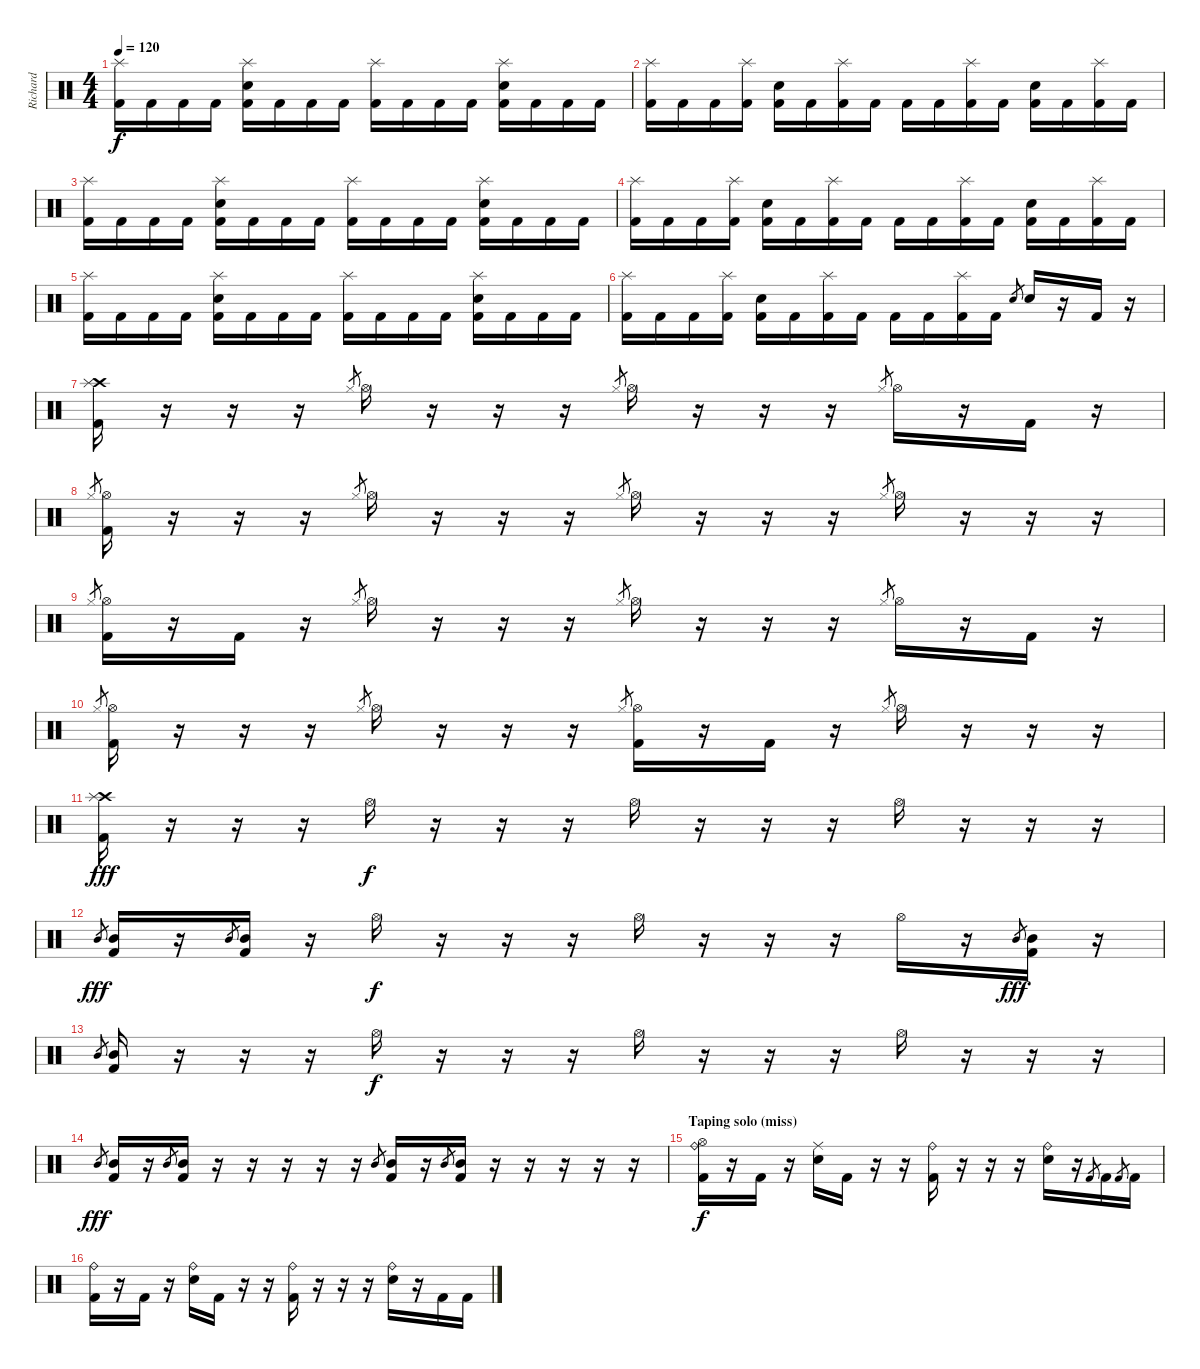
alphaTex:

\track ("Richard " "Richard ") {instrument percussion}
\staff {score}
\articulation defaults
\ts (4 4)
\tempo 120
\clef neutral
\ks c
("Splash (hit)" "Kick (hit) 2").16{dy f} "Kick (hit) 2".16 "Kick (hit) 2".16 "Kick (hit) 2".16 ("Splash (hit)" "Snare (hit) 2" "Kick (hit) 2").16 "Kick (hit) 2".16 "Kick (hit) 2".16 "Kick (hit) 2".16 ("Splash (hit)" "Kick (hit) 2").16 "Kick (hit) 2".16 "Kick (hit) 2".16 "Kick (hit) 2".16 ("Splash (hit)" "Snare (hit) 2" "Kick (hit) 2").16 "Kick (hit) 2".16 "Kick (hit) 2".16 "Kick (hit) 2".16 |
("Splash (hit)" "Kick (hit) 2").16 "Kick (hit) 2".16 "Kick (hit) 2".16 ("Splash (hit)" "Kick (hit) 2").16 ("Snare (hit) 2" "Kick (hit) 2").16 "Kick (hit) 2".16 ("Splash (hit)" "Kick (hit) 2").16 "Kick (hit) 2".16 "Kick (hit) 2".16 "Kick (hit) 2".16 ("Splash (hit)" "Kick (hit) 2").16 "Kick (hit) 2".16 ("Snare (hit) 2" "Kick (hit) 2").16 "Kick (hit) 2".16 ("Splash (hit)" "Kick (hit) 2").16 "Kick (hit) 2".16 |
("Splash (hit)" "Kick (hit) 2").16 "Kick (hit) 2".16 "Kick (hit) 2".16 "Kick (hit) 2".16 ("Splash (hit)" "Snare (hit) 2" "Kick (hit) 2").16 "Kick (hit) 2".16 "Kick (hit) 2".16 "Kick (hit) 2".16 ("Splash (hit)" "Kick (hit) 2").16 "Kick (hit) 2".16 "Kick (hit) 2".16 "Kick (hit) 2".16 ("Splash (hit)" "Snare (hit) 2" "Kick (hit) 2").16 "Kick (hit) 2".16 "Kick (hit) 2".16 "Kick (hit) 2".16 |
("Splash (hit)" "Kick (hit) 2").16 "Kick (hit) 2".16 "Kick (hit) 2".16 ("Splash (hit)" "Kick (hit) 2").16 ("Snare (hit) 2" "Kick (hit) 2").16 "Kick (hit) 2".16 ("Splash (hit)" "Kick (hit) 2").16 "Kick (hit) 2".16 "Kick (hit) 2".16 "Kick (hit) 2".16 ("Splash (hit)" "Kick (hit) 2").16 "Kick (hit) 2".16 ("Snare (hit) 2" "Kick (hit) 2").16 "Kick (hit) 2".16 ("Splash (hit)" "Kick (hit) 2").16 "Kick (hit) 2".16 |
("Splash (hit)" "Kick (hit) 2").16 "Kick (hit) 2".16 "Kick (hit) 2".16 "Kick (hit) 2".16 ("Splash (hit)" "Snare (hit) 2" "Kick (hit) 2").16 "Kick (hit) 2".16 "Kick (hit) 2".16 "Kick (hit) 2".16 ("Splash (hit)" "Kick (hit) 2").16 "Kick (hit) 2".16 "Kick (hit) 2".16 "Kick (hit) 2".16 ("Splash (hit)" "Snare (hit) 2" "Kick (hit) 2").16 "Kick (hit) 2".16 "Kick (hit) 2".16 "Kick (hit) 2".16 |
("Splash (hit)" "Kick (hit) 2").16 "Kick (hit) 2".16 "Kick (hit) 2".16 ("Splash (hit)" "Kick (hit) 2").16 ("Snare (hit) 2" "Kick (hit) 2").16 "Kick (hit) 2".16 ("Splash (hit)" "Kick (hit) 2").16 "Kick (hit) 2".16 "Kick (hit) 2".16 "Kick (hit) 2".16 ("Splash (hit)" "Kick (hit) 2").16 "Kick (hit) 2".16 "Snare (hit) 2".8{gr} "Snare (hit) 2".16 r.16 "Kick (hit) 2".16 r.16 |
("Crash high (hit)" "Splash (hit)" "Kick (hit) 2").16 r.16 r.16 r.16 "Hi-Hat (closed)".8{gr} "Hi-Hat (open)".16 r.16 r.16 r.16 "Hi-Hat (closed)".8{gr} "Hi-Hat (open)".16 r.16 r.16 r.16 "Hi-Hat (closed)".8{gr} "Hi-Hat (open)".16 r.16 "Kick (hit) 2".16 r.16 |
"Hi-Hat (closed)".8{gr} ("Hi-Hat (open)" "Kick (hit) 2").16 r.16 r.16 r.16 "Hi-Hat (closed)".8{gr} "Hi-Hat (open)".16 r.16 r.16 r.16 "Hi-Hat (closed)".8{gr} "Hi-Hat (open)".16 r.16 r.16 r.16 "Hi-Hat (closed)".8{gr} "Hi-Hat (open)".16 r.16 r.16 r.16 |
"Hi-Hat (closed)".8{gr} ("Hi-Hat (open)" "Kick (hit) 2").16 r.16 "Kick (hit) 2".16 r.16 "Hi-Hat (closed)".8{gr} "Hi-Hat (open)".16 r.16 r.16 r.16 "Hi-Hat (closed)".8{gr} "Hi-Hat (open)".16 r.16 r.16 r.16 "Hi-Hat (closed)".8{gr} "Hi-Hat (open)".16 r.16 "Kick (hit) 2".16 r.16 |
"Hi-Hat (closed)".8{gr} ("Hi-Hat (open)" "Kick (hit) 2").16 r.16 r.16 r.16 "Hi-Hat (closed)".8{gr} "Hi-Hat (open)".16 r.16 r.16 r.16 "Hi-Hat (closed)".8{gr} ("Hi-Hat (open)" "Kick (hit) 2").16 r.16 "Kick (hit) 2".16 r.16 "Hi-Hat (closed)".8{gr} "Hi-Hat (open)".16 r.16 r.16 r.16 |
("Crash high (hit)" "Splash (hit)" "Kick (hit) 2").16{dy fff} r.16 r.16 r.16 "Hi-Hat (open)".16{dy f} r.16 r.16 r.16 "Hi-Hat (open)".16 r.16 r.16 r.16 "Hi-Hat (open)".16 r.16 r.16 r.16 |
"Mid Tom (hit)".8{gr dy fff} ("Kick (hit) 2" "Mid Tom (hit)").16 r.16 "Mid Tom (hit)".8{gr} ("Kick (hit) 2" "Mid Tom (hit)").16 r.16 "Hi-Hat (open)".16{dy f} r.16 r.16 r.16 "Hi-Hat (open)".16 r.16 r.16 r.16 "Hi-Hat (open)".16 r.16 "Mid Tom (hit)".8{gr dy fff} ("Kick (hit) 2" "Mid Tom (hit)").16 r.16 |
"Mid Tom (hit)".8{gr} ("Kick (hit) 2" "Mid Tom (hit)").16 r.16 r.16 r.16 "Hi-Hat (open)".16{dy f} r.16 r.16 r.16 "Hi-Hat (open)".16 r.16 r.16 r.16 "Hi-Hat (open)".16 r.16 r.16 r.16 |
"Mid Tom (hit)".8{gr dy fff} ("Kick (hit) 2" "Mid Tom (hit)").16 r.16 "Mid Tom (hit)".8{gr} ("Kick (hit) 2" "Mid Tom (hit)").16 r.16 r.16 r.16 r.16 r.16 "Mid Tom (hit)".8{gr} ("Kick (hit) 2" "Mid Tom (hit)").16 r.16 "Mid Tom (hit)".8{gr} ("Kick (hit) 2" "Mid Tom (hit)").16 r.16 r.16 r.16 r.16 r.16 |
\section ("" "Taping solo (miss)")
("Hi-Hat (open)" "Ride (bell)" "Kick (hit) 2").16{dy f} r.16 "Kick (hit) 2".16 r.16 ("Ride (middle)" "Snare (hit) 2").16 "Kick (hit) 2".16 r.16 r.16 ("Ride (bell)" "Kick (hit) 2").16 r.16 r.16 r.16 ("Ride (bell)" "Snare (hit) 2").16 r.16 "Kick (hit) 2".8{gr} "Kick (hit) 2".16 "Kick (hit) 2".8{gr} "Kick (hit) 2".16 |
("Ride (bell)" "Kick (hit) 2").16 r.16 "Kick (hit) 2".16 r.16 ("Ride (bell)" "Snare (hit) 2").16 "Kick (hit) 2".16 r.16 r.16 ("Ride (bell)" "Kick (hit) 2").16 r.16 r.16 r.16 ("Ride (bell)" "Snare (hit) 2").16 r.16 "Kick (hit) 2".16 "Kick (hit) 2".16
